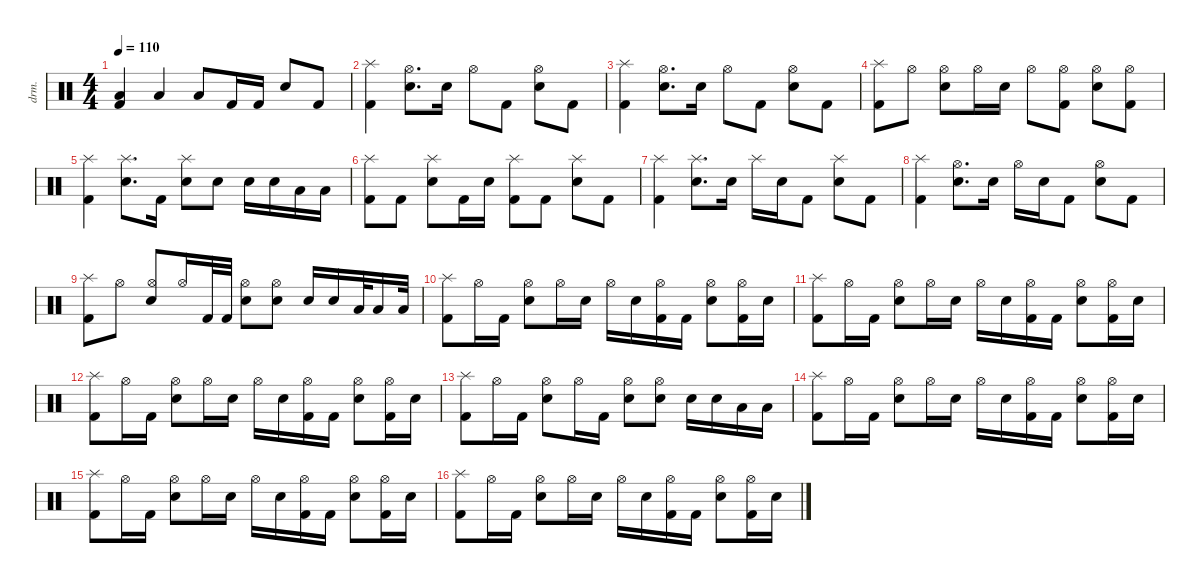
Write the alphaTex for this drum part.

\defaultSystemsLayout 4
\hideDynamics
\bracketExtendMode nobrackets
\track ("Drumkit" "drm.") {instrument percussion}
\staff {score}
\articulation defaults
\ts (4 4)
\tempo 110
\clef neutral
\ks c
("Low Tom (hit)" "Kick (hit) 2").4{dy mf beam Up} "Low Tom (hit)".4{beam Up} "Low Tom (hit)".8{beam Up} "Kick (hit) 2".16{beam Up} "Kick (hit) 2".16{beam Up} "Snare (hit) 2".8{beam Up} "Kick (hit) 2".8{beam Up} |
("Kick (hit) 2" "Splash (hit)").4{beam Down} ("Hi-Hat (open)" "Snare (hit) 2").8{d beam Down} "Snare (hit) 2".16{beam Down} "Hi-Hat (open)".8{beam Down} "Kick (hit) 2".8{beam Down} ("Snare (hit) 2" "Hi-Hat (open)").8{beam Down} "Kick (hit) 2".8{beam Down} |
("Kick (hit) 2" "Splash (hit)").4{beam Down} ("Hi-Hat (open)" "Snare (hit) 2").8{d beam Down} "Snare (hit) 2".16{beam Down} "Hi-Hat (open)".8{beam Down} "Kick (hit) 2".8{beam Down} ("Snare (hit) 2" "Hi-Hat (open)").8{beam Down} "Kick (hit) 2".8{beam Down} |
("Splash (hit)" "Kick (hit) 2").8{beam Down} "Hi-Hat (open)".8{beam Down} ("Hi-Hat (open)" "Snare (hit) 2").8{beam Down} "Hi-Hat (open)".16{beam Down} "Snare (hit) 2".16{beam Down} "Hi-Hat (open)".8{beam Down} ("Hi-Hat (open)" "Kick (hit) 2").8{beam Down} ("Hi-Hat (open)" "Snare (hit) 2").8{beam Down} ("Hi-Hat (open)" "Kick (hit) 2").8{beam Down} |
("Splash (hit)" "Kick (hit) 2").4{beam Down} ("Splash (hit)" "Snare (hit) 2").8{d beam Down} "Kick (hit) 2".16{beam Down} ("Splash (hit)" "Snare (hit) 2").8{beam Down} "Snare (hit) 2".8{beam Down} "Snare (hit) 2".16{beam Down} "Snare (hit) 2".16{beam Down} "Low Tom (hit)".16{beam Down} "Low Tom (hit)".16{beam Down} |
("Kick (hit) 2" "Splash (hit)").8{beam Down} "Kick (hit) 2".8{beam Down} ("Splash (hit)" "Snare (hit) 2").8{beam Down} "Kick (hit) 2".16{beam Down} "Snare (hit) 2".16{beam Down} ("Splash (hit)" "Kick (hit) 2").8{beam Down} "Kick (hit) 2".8{beam Down} ("Snare (hit) 2" "Splash (hit)").8{beam Down} "Kick (hit) 2".8{beam Down} |
("Kick (hit) 2" "Splash (hit)").4{dy f beam Down} ("Splash (hit)" "Snare (hit) 2").8{d beam Down} "Snare (hit) 2".16{beam Down} "Splash (hit)".16{beam Down} "Snare (hit) 2".16{beam Down} "Kick (hit) 2".8{beam Down} ("Splash (hit)" "Snare (hit) 2").8{beam Down} "Kick (hit) 2".8{beam Down} |
("Kick (hit) 2" "Splash (hit)").4{beam Down} ("Hi-Hat (open)" "Snare (hit) 2").8{d beam Down} "Snare (hit) 2".16{beam Down} "Hi-Hat (open)".16{beam Down} "Snare (hit) 2".16{beam Down} "Kick (hit) 2".8{beam Down} ("Snare (hit) 2" "Hi-Hat (open)").8{beam Down} "Kick (hit) 2".8{beam Down} |
("Splash (hit)" "Kick (hit) 2").8{beam Down} "Hi-Hat (open)".8{beam Down} ("Hi-Hat (open)" "Snare (hit) 2").8{beam Up} "Hi-Hat (open)".16{beam Up} "Kick (hit) 2".32{beam Up} "Kick (hit) 2".32{beam Up} ("Hi-Hat (open)" "Snare (hit) 2").8{beam Down} ("Hi-Hat (open)" "Snare (hit) 2").8{beam Down} "Snare (hit) 2".16{beam Up} "Snare (hit) 2".16{beam Up} "Low Tom (hit)".32{beam Up} "Low Tom (hit)".16{beam Up} "Low Tom (hit)".32{beam Up} |
("Splash (hit)" "Kick (hit) 2").8{beam Down} "Hi-Hat (open)".16{beam Down} "Kick (hit) 2".16{beam Down} ("Hi-Hat (open)" "Snare (hit) 2").8{beam Down} "Hi-Hat (open)".16{beam Down} "Snare (hit) 2".16{beam Down} "Hi-Hat (open)".16{beam Down} "Snare (hit) 2".16{beam Down} ("Hi-Hat (open)" "Kick (hit) 2").16{beam Down} "Kick (hit) 2".16{beam Down} ("Hi-Hat (open)" "Snare (hit) 2").8{beam Down} ("Hi-Hat (open)" "Kick (hit) 2").16{beam Down} "Snare (hit) 2".16{beam Down} |
("Splash (hit)" "Kick (hit) 2").8{beam Down} "Hi-Hat (open)".16{beam Down} "Kick (hit) 2".16{beam Down} ("Hi-Hat (open)" "Snare (hit) 2").8{beam Down} "Hi-Hat (open)".16{beam Down} "Snare (hit) 2".16{beam Down} "Hi-Hat (open)".16{beam Down} "Snare (hit) 2".16{beam Down} ("Hi-Hat (open)" "Kick (hit) 2").16{beam Down} "Kick (hit) 2".16{beam Down} ("Hi-Hat (open)" "Snare (hit) 2").8{beam Down} ("Hi-Hat (open)" "Kick (hit) 2").16{beam Down} "Snare (hit) 2".16{beam Down} |
("Splash (hit)" "Kick (hit) 2").8{beam Down} "Hi-Hat (open)".16{beam Down} "Kick (hit) 2".16{beam Down} ("Hi-Hat (open)" "Snare (hit) 2").8{beam Down} "Hi-Hat (open)".16{beam Down} "Snare (hit) 2".16{beam Down} "Hi-Hat (open)".16{beam Down} "Snare (hit) 2".16{beam Down} ("Hi-Hat (open)" "Kick (hit) 2").16{beam Down} "Kick (hit) 2".16{beam Down} ("Hi-Hat (open)" "Snare (hit) 2").8{beam Down} ("Hi-Hat (open)" "Kick (hit) 2").16{beam Down} "Snare (hit) 2".16{beam Down} |
("Splash (hit)" "Kick (hit) 2").8{beam Down} "Hi-Hat (open)".16{beam Down} "Kick (hit) 2".16{beam Down} ("Hi-Hat (open)" "Snare (hit) 2").8{beam Down} "Hi-Hat (open)".16{beam Down} "Kick (hit) 2".16{beam Down} ("Hi-Hat (open)" "Snare (hit) 2").8{beam Down} ("Snare (hit) 2" "Hi-Hat (open)").8{beam Down} "Snare (hit) 2".16{beam Down} "Snare (hit) 2".16{beam Down} "Low Tom (hit)".16{beam Down} "Low Tom (hit)".16{beam Down} |
("Splash (hit)" "Kick (hit) 2").8{beam Down} "Hi-Hat (open)".16{beam Down} "Kick (hit) 2".16{beam Down} ("Hi-Hat (open)" "Snare (hit) 2").8{beam Down} "Hi-Hat (open)".16{beam Down} "Snare (hit) 2".16{beam Down} "Hi-Hat (open)".16{beam Down} "Snare (hit) 2".16{beam Down} ("Hi-Hat (open)" "Kick (hit) 2").16{beam Down} "Kick (hit) 2".16{beam Down} ("Hi-Hat (open)" "Snare (hit) 2").8{beam Down} ("Hi-Hat (open)" "Kick (hit) 2").16{beam Down} "Snare (hit) 2".16{beam Down} |
("Splash (hit)" "Kick (hit) 2").8{beam Down} "Hi-Hat (open)".16{beam Down} "Kick (hit) 2".16{beam Down} ("Hi-Hat (open)" "Snare (hit) 2").8{beam Down} "Hi-Hat (open)".16{beam Down} "Snare (hit) 2".16{beam Down} "Hi-Hat (open)".16{beam Down} "Snare (hit) 2".16{beam Down} ("Hi-Hat (open)" "Kick (hit) 2").16{beam Down} "Kick (hit) 2".16{beam Down} ("Hi-Hat (open)" "Snare (hit) 2").8{beam Down} ("Hi-Hat (open)" "Kick (hit) 2").16{beam Down} "Snare (hit) 2".16{beam Down} |
("Splash (hit)" "Kick (hit) 2").8{beam Down} "Hi-Hat (open)".16{beam Down} "Kick (hit) 2".16{beam Down} ("Hi-Hat (open)" "Snare (hit) 2").8{beam Down} "Hi-Hat (open)".16{beam Down} "Snare (hit) 2".16{beam Down} "Hi-Hat (open)".16{beam Down} "Snare (hit) 2".16{beam Down} ("Hi-Hat (open)" "Kick (hit) 2").16{beam Down} "Kick (hit) 2".16{beam Down} ("Hi-Hat (open)" "Snare (hit) 2").8{beam Down} ("Hi-Hat (open)" "Kick (hit) 2").16{beam Down} "Snare (hit) 2".16{beam Down}
